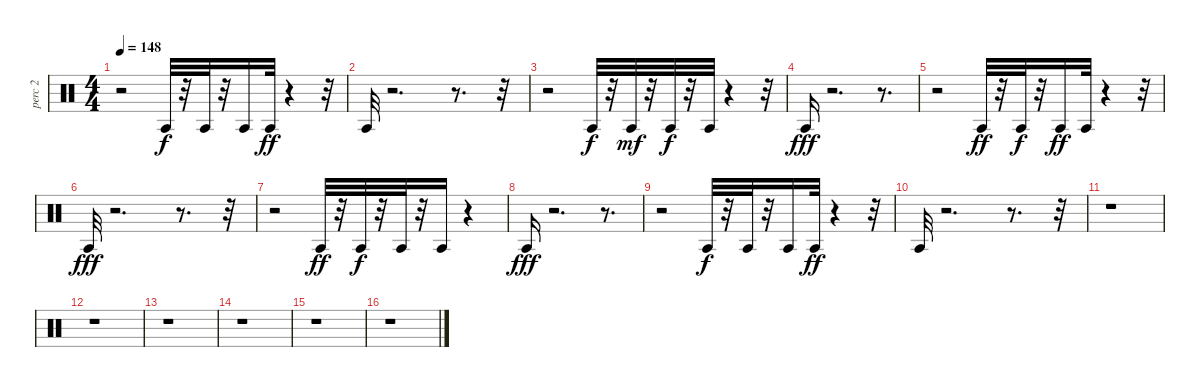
\track ("perc 2              " "perc 2    ") {instrument percussion}
\staff {score}
\articulation defaults
\ts (4 4)
\tempo 148
\clef neutral
\ks c
r.2{dy fff} "Agogo tow (hit)".32{dy f} r.32 "Agogo tow (hit)".32 r.32 "Agogo tow (hit)".16 "Agogo tow (hit)".32{dy ff} r.4 r.32 |
"Agogo tow (hit)".32 r.2{d} r.8{d} r.32 |
r.2 "Agogo tow (hit)".32{dy f} r.32 "Agogo tow (hit)".32{dy mf} r.32 "Agogo tow (hit)".32{dy f} r.32 "Agogo tow (hit)".32 r.4 r.32 |
"Agogo tow (hit)".16{dy fff} r.2{d} r.8{d} |
r.2 "Agogo tow (hit)".32{dy ff} r.32 "Agogo tow (hit)".32{dy f} r.32 "Agogo tow (hit)".16{dy ff} "Agogo tow (hit)".32 r.4 r.32 |
"Agogo tow (hit)".32{dy fff} r.2{d} r.8{d} r.32 |
r.2 "Agogo tow (hit)".32{dy ff} r.32 "Agogo tow (hit)".32{dy f} r.32 "Agogo tow (hit)".32 r.32 "Agogo tow (hit)".16 r.4 |
"Agogo tow (hit)".16{dy fff} r.2{d} r.8{d} |
r.2 "Agogo tow (hit)".32{dy f} r.32 "Agogo tow (hit)".32 r.32 "Agogo tow (hit)".16 "Agogo tow (hit)".32{dy ff} r.4 r.32 |
"Agogo tow (hit)".32 r.2{d} r.8{d} r.32 |
r.1 |
r.1 |
r.1 |
r.1 |
r.1 |
r.1
